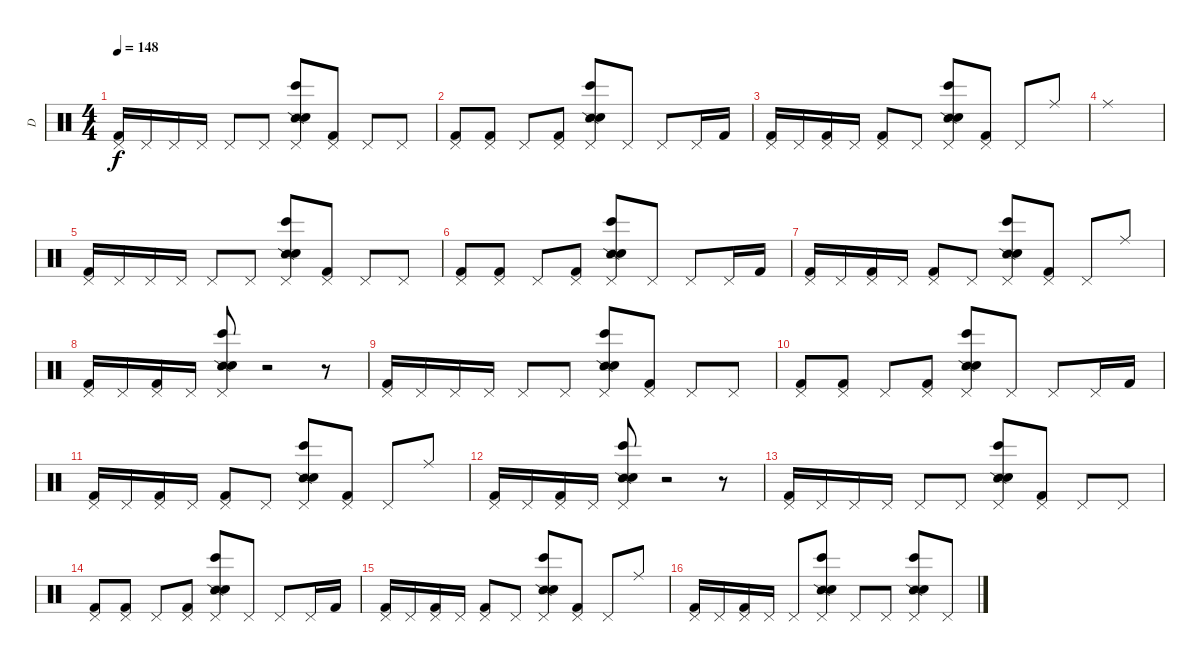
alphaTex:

\track ("D" "D") {instrument percussion}
\staff {score}
\articulation defaults
\ts (4 4)
\tempo 148
\clef neutral
\ks c
("Kick (hit) 2" "Pedal Hi-Hat (hit)").16{dy f} "Pedal Hi-Hat (hit)".16 "Pedal Hi-Hat (hit)".16 "Pedal Hi-Hat (hit)".16 "Pedal Hi-Hat (hit)".8 "Pedal Hi-Hat (hit)".8 ("Bongo High (hit)" "Snare (side stick) 2" "Electric Snare (hit)" "Pedal Hi-Hat (hit)").8 ("Kick (hit) 2" "Pedal Hi-Hat (hit)").8 "Pedal Hi-Hat (hit)".8 "Pedal Hi-Hat (hit)".8 |
("Kick (hit) 2" "Pedal Hi-Hat (hit)").8 ("Kick (hit) 2" "Pedal Hi-Hat (hit)").8 "Pedal Hi-Hat (hit)".8 ("Kick (hit) 2" "Pedal Hi-Hat (hit)").8 ("Bongo High (hit)" "Snare (side stick) 2" "Electric Snare (hit)" "Pedal Hi-Hat (hit)").8 "Pedal Hi-Hat (hit)".8 "Pedal Hi-Hat (hit)".8 "Pedal Hi-Hat (hit)".16 "Kick (hit) 2".16 |
("Kick (hit) 2" "Pedal Hi-Hat (hit)").16 "Pedal Hi-Hat (hit)".16 ("Kick (hit) 2" "Pedal Hi-Hat (hit)").16 "Pedal Hi-Hat (hit)".16 ("Kick (hit) 2" "Pedal Hi-Hat (hit)").8 "Pedal Hi-Hat (hit)".8 ("Bongo High (hit)" "Snare (side stick) 2" "Electric Snare (hit)" "Pedal Hi-Hat (hit)").8 ("Kick (hit) 2" "Pedal Hi-Hat (hit)").8 "Pedal Hi-Hat (hit)".8 "Ride (middle)".8 |
"Ride (middle)".1 |
("Kick (hit) 2" "Pedal Hi-Hat (hit)").16 "Pedal Hi-Hat (hit)".16 "Pedal Hi-Hat (hit)".16 "Pedal Hi-Hat (hit)".16 "Pedal Hi-Hat (hit)".8 "Pedal Hi-Hat (hit)".8 ("Bongo High (hit)" "Snare (side stick) 2" "Electric Snare (hit)" "Pedal Hi-Hat (hit)").8 ("Kick (hit) 2" "Pedal Hi-Hat (hit)").8 "Pedal Hi-Hat (hit)".8 "Pedal Hi-Hat (hit)".8 |
("Kick (hit) 2" "Pedal Hi-Hat (hit)").8 ("Kick (hit) 2" "Pedal Hi-Hat (hit)").8 "Pedal Hi-Hat (hit)".8 ("Kick (hit) 2" "Pedal Hi-Hat (hit)").8 ("Bongo High (hit)" "Snare (side stick) 2" "Electric Snare (hit)" "Pedal Hi-Hat (hit)").8 "Pedal Hi-Hat (hit)".8 "Pedal Hi-Hat (hit)".8 "Pedal Hi-Hat (hit)".16 "Kick (hit) 2".16 |
("Kick (hit) 2" "Pedal Hi-Hat (hit)").16 "Pedal Hi-Hat (hit)".16 ("Kick (hit) 2" "Pedal Hi-Hat (hit)").16 "Pedal Hi-Hat (hit)".16 ("Kick (hit) 2" "Pedal Hi-Hat (hit)").8 "Pedal Hi-Hat (hit)".8 ("Bongo High (hit)" "Snare (side stick) 2" "Electric Snare (hit)" "Pedal Hi-Hat (hit)").8 ("Kick (hit) 2" "Pedal Hi-Hat (hit)").8 "Pedal Hi-Hat (hit)".8 "Ride (middle)".8 |
("Kick (hit) 2" "Pedal Hi-Hat (hit)").16 "Pedal Hi-Hat (hit)".16 ("Kick (hit) 2" "Pedal Hi-Hat (hit)").16 "Pedal Hi-Hat (hit)".16 ("Bongo High (hit)" "Snare (side stick) 2" "Electric Snare (hit)" "Pedal Hi-Hat (hit)").8 r.2 r.8 |
("Kick (hit) 2" "Pedal Hi-Hat (hit)").16 "Pedal Hi-Hat (hit)".16 "Pedal Hi-Hat (hit)".16 "Pedal Hi-Hat (hit)".16 "Pedal Hi-Hat (hit)".8 "Pedal Hi-Hat (hit)".8 ("Bongo High (hit)" "Snare (side stick) 2" "Electric Snare (hit)" "Pedal Hi-Hat (hit)").8 ("Kick (hit) 2" "Pedal Hi-Hat (hit)").8 "Pedal Hi-Hat (hit)".8 "Pedal Hi-Hat (hit)".8 |
("Kick (hit) 2" "Pedal Hi-Hat (hit)").8 ("Kick (hit) 2" "Pedal Hi-Hat (hit)").8 "Pedal Hi-Hat (hit)".8 ("Kick (hit) 2" "Pedal Hi-Hat (hit)").8 ("Bongo High (hit)" "Snare (side stick) 2" "Electric Snare (hit)" "Pedal Hi-Hat (hit)").8 "Pedal Hi-Hat (hit)".8 "Pedal Hi-Hat (hit)".8 "Pedal Hi-Hat (hit)".16 "Kick (hit) 2".16 |
("Kick (hit) 2" "Pedal Hi-Hat (hit)").16 "Pedal Hi-Hat (hit)".16 ("Kick (hit) 2" "Pedal Hi-Hat (hit)").16 "Pedal Hi-Hat (hit)".16 ("Kick (hit) 2" "Pedal Hi-Hat (hit)").8 "Pedal Hi-Hat (hit)".8 ("Bongo High (hit)" "Snare (side stick) 2" "Electric Snare (hit)" "Pedal Hi-Hat (hit)").8 ("Kick (hit) 2" "Pedal Hi-Hat (hit)").8 "Pedal Hi-Hat (hit)".8 "Ride (middle)".8 |
("Kick (hit) 2" "Pedal Hi-Hat (hit)").16 "Pedal Hi-Hat (hit)".16 ("Kick (hit) 2" "Pedal Hi-Hat (hit)").16 "Pedal Hi-Hat (hit)".16 ("Bongo High (hit)" "Snare (side stick) 2" "Electric Snare (hit)" "Pedal Hi-Hat (hit)").8 r.2 r.8 |
("Kick (hit) 2" "Pedal Hi-Hat (hit)").16 "Pedal Hi-Hat (hit)".16 "Pedal Hi-Hat (hit)".16 "Pedal Hi-Hat (hit)".16 "Pedal Hi-Hat (hit)".8 "Pedal Hi-Hat (hit)".8 ("Bongo High (hit)" "Snare (side stick) 2" "Electric Snare (hit)" "Pedal Hi-Hat (hit)").8 ("Kick (hit) 2" "Pedal Hi-Hat (hit)").8 "Pedal Hi-Hat (hit)".8 "Pedal Hi-Hat (hit)".8 |
("Kick (hit) 2" "Pedal Hi-Hat (hit)").8 ("Kick (hit) 2" "Pedal Hi-Hat (hit)").8 "Pedal Hi-Hat (hit)".8 ("Kick (hit) 2" "Pedal Hi-Hat (hit)").8 ("Bongo High (hit)" "Snare (side stick) 2" "Electric Snare (hit)" "Pedal Hi-Hat (hit)").8 "Pedal Hi-Hat (hit)".8 "Pedal Hi-Hat (hit)".8 "Pedal Hi-Hat (hit)".16 "Kick (hit) 2".16 |
("Kick (hit) 2" "Pedal Hi-Hat (hit)").16 "Pedal Hi-Hat (hit)".16 ("Kick (hit) 2" "Pedal Hi-Hat (hit)").16 "Pedal Hi-Hat (hit)".16 ("Kick (hit) 2" "Pedal Hi-Hat (hit)").8 "Pedal Hi-Hat (hit)".8 ("Bongo High (hit)" "Snare (side stick) 2" "Electric Snare (hit)" "Pedal Hi-Hat (hit)").8 ("Kick (hit) 2" "Pedal Hi-Hat (hit)").8 "Pedal Hi-Hat (hit)".8 "Ride (middle)".8 |
("Kick (hit) 2" "Pedal Hi-Hat (hit)").16 "Pedal Hi-Hat (hit)".16 ("Kick (hit) 2" "Pedal Hi-Hat (hit)").16 "Pedal Hi-Hat (hit)".16 "Pedal Hi-Hat (hit)".8 ("Bongo High (hit)" "Snare (side stick) 2" "Electric Snare (hit)" "Pedal Hi-Hat (hit)").8 "Pedal Hi-Hat (hit)".8 "Pedal Hi-Hat (hit)".8 ("Bongo High (hit)" "Snare (side stick) 2" "Electric Snare (hit)" "Pedal Hi-Hat (hit)").8 "Pedal Hi-Hat (hit)".8
